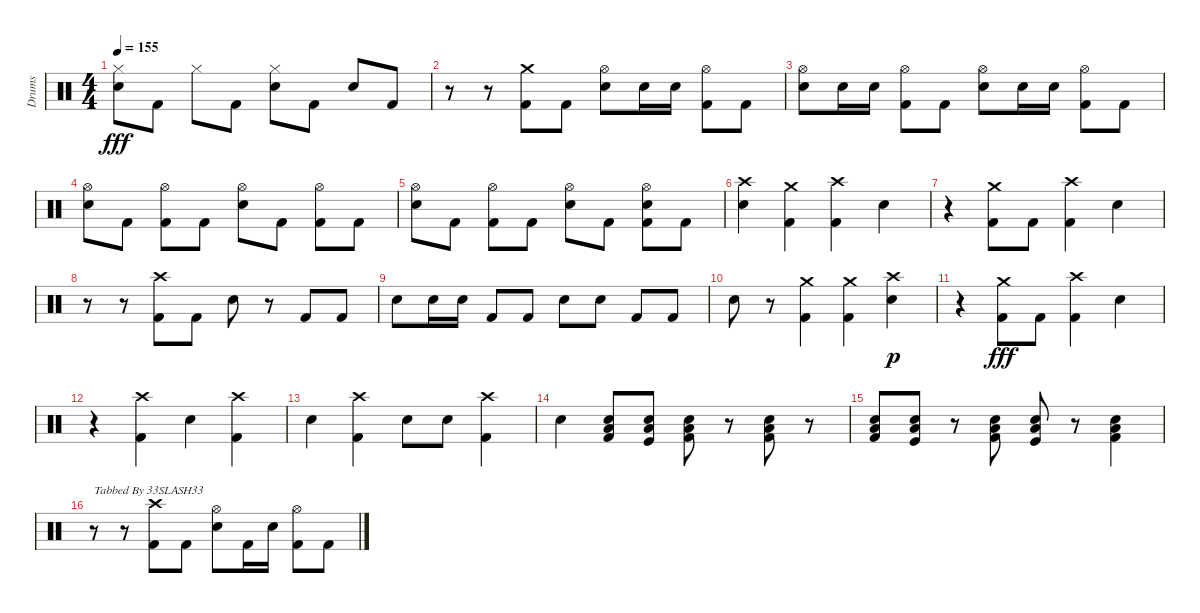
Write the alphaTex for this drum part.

\track ("Drums" "Drums") {instrument percussion}
\staff {score}
\articulation defaults
\ts (4 4)
\tempo 155
\clef neutral
\ks c
("Hi-Hat (closed)" "Snare (hit) 2").8{dy fff} "Kick (hit) 2".8 "Hi-Hat (closed)".8 "Kick (hit) 2".8 ("Hi-Hat (closed)" "Snare (hit) 2").8 "Kick (hit) 2".8 "Snare (hit) 2".8 "Kick (hit) 2".8 |
r.8 r.8 ("Crash medium (hit)" "Kick (hit) 2").8 "Kick (hit) 2".8 ("Hi-Hat (open)" "Snare (hit) 2").8 "Snare (hit) 2".16 "Snare (hit) 2".16 ("Hi-Hat (open)" "Kick (hit) 2").8 "Kick (hit) 2".8 |
("Hi-Hat (open)" "Snare (hit) 2").8 "Snare (hit) 2".16 "Snare (hit) 2".16 ("Hi-Hat (open)" "Kick (hit) 2").8 "Kick (hit) 2".8 ("Hi-Hat (open)" "Snare (hit) 2").8 "Snare (hit) 2".16 "Snare (hit) 2".16 ("Hi-Hat (open)" "Kick (hit) 2").8 "Kick (hit) 2".8 |
("Hi-Hat (open)" "Snare (hit) 2").8 "Kick (hit) 2".8 ("Hi-Hat (open)" "Kick (hit) 2").8 "Kick (hit) 2".8 ("Hi-Hat (open)" "Snare (hit) 2").8 "Kick (hit) 2".8 ("Hi-Hat (open)" "Kick (hit) 2").8 "Kick (hit) 2".8 |
("Hi-Hat (open)" "Snare (hit) 2").8 "Kick (hit) 2".8 ("Hi-Hat (open)" "Kick (hit) 2").8 "Kick (hit) 2".8 ("Hi-Hat (open)" "Snare (hit) 2").8 "Kick (hit) 2".8 ("Hi-Hat (open)" "Snare (hit) 2" "Kick (hit) 2").8 "Kick (hit) 2".8 |
("Crash high (hit)" "Snare (hit) 2").4 ("Crash medium (hit)" "Kick (hit) 2").4 ("Crash high (hit)" "Kick (hit) 2").4 "Snare (hit) 2".4 |
r.4 ("Crash medium (hit)" "Kick (hit) 2").8 "Kick (hit) 2".8 ("Crash high (hit)" "Kick (hit) 2").4 "Snare (hit) 2".4 |
r.8 r.8 ("Crash high (hit)" "Kick (hit) 2").8 "Kick (hit) 2".8 "Snare (hit) 2".8 r.8 "Kick (hit) 2".8 "Kick (hit) 2".8 |
"Snare (hit) 2".8 "Snare (hit) 2".16 "Snare (hit) 2".16 "Kick (hit) 2".8 "Kick (hit) 2".8 "Snare (hit) 2".8 "Snare (hit) 2".8 "Kick (hit) 2".8 "Kick (hit) 2".8 |
"Snare (hit) 2".8 r.8 ("Crash medium (hit)" "Kick (hit) 2").4 ("Crash medium (hit)" "Kick (hit) 2").4 ("Crash high (hit)" "Snare (hit) 2").4{dy p} |
r.4 ("Crash medium (hit)" "Kick (hit) 2").8{dy fff} "Kick (hit) 2".8 ("Crash high (hit)" "Kick (hit) 2").4 "Snare (hit) 2".4 |
r.4 ("Crash high (hit)" "Kick (hit) 2").4 "Snare (hit) 2".4 ("Crash high (hit)" "Kick (hit) 2").4 |
"Snare (hit) 2".4 ("Crash high (hit)" "Kick (hit) 2").4 "Snare (hit) 2".8 "Snare (hit) 2".8 ("Crash high (hit)" "Kick (hit) 2").4 |
"Snare (hit) 2".4 ("Snare (hit) 2" "Low Floor Tom (hit)" "Kick (hit) 2").8 ("Snare (hit) 2" "Low Floor Tom (hit)" "Kick (hit)").8 ("Snare (hit) 2" "Low Floor Tom (hit)" "Kick (hit) 2").8 r.8 ("Snare (hit) 2" "Low Floor Tom (hit)" "Kick (hit) 2").8 r.8 |
("Snare (hit) 2" "Low Floor Tom (hit)" "Kick (hit) 2").8 ("Snare (hit) 2" "Low Floor Tom (hit)" "Kick (hit)").8 r.8 ("Snare (hit) 2" "Low Floor Tom (hit)" "Kick (hit) 2").8 ("Snare (hit) 2" "Low Floor Tom (hit)" "Kick (hit)").8 r.8 ("Snare (hit) 2" "Low Floor Tom (hit)" "Kick (hit) 2").4 |
r.8{txt "Tabbed By 33SLASH33"} r.8 ("Crash high (hit)" "Kick (hit) 2").8 "Kick (hit) 2".8 ("Hi-Hat (open)" "Snare (hit) 2").8 "Kick (hit) 2".16 "Snare (hit) 2".16 ("Hi-Hat (open)" "Kick (hit) 2").8 "Kick (hit) 2".8
